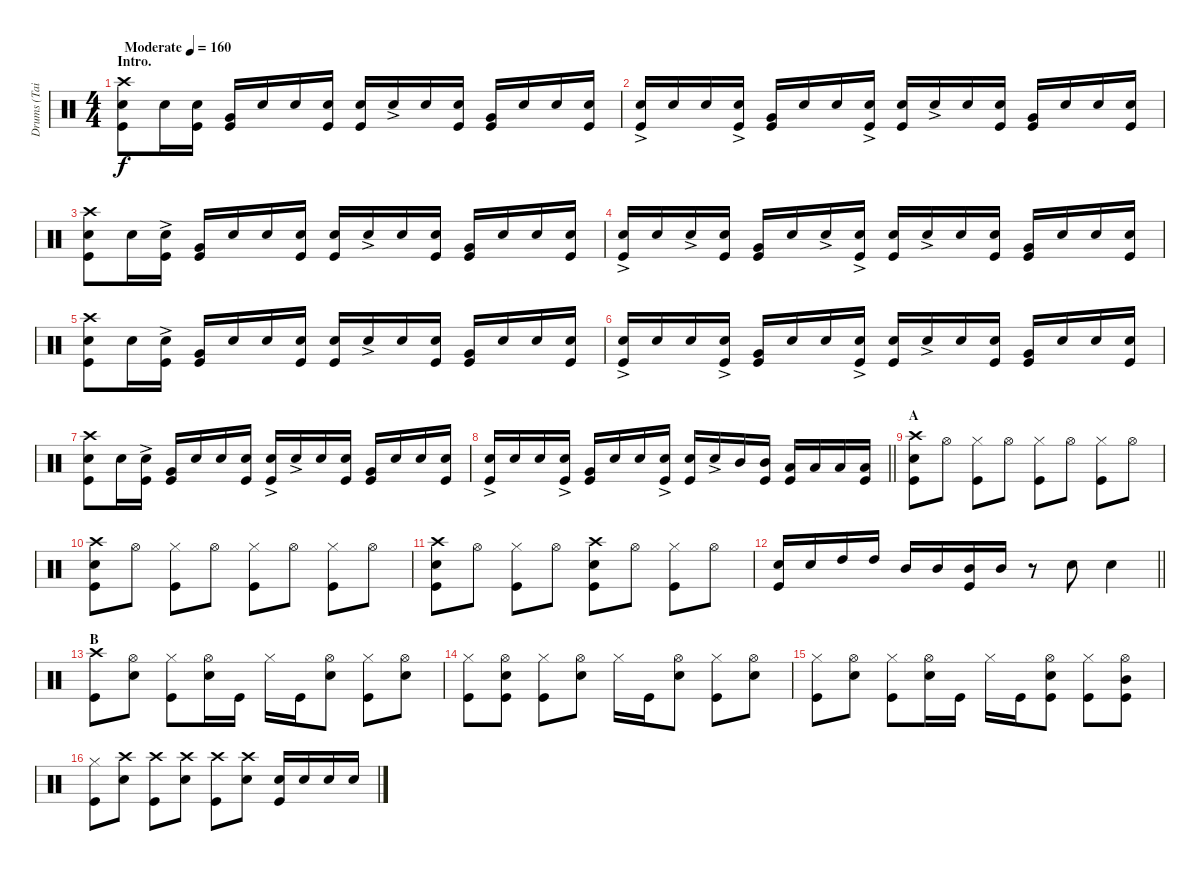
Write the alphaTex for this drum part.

\track ("Drums (Tainaka Ritsu)" "Drums (Tai") {instrument percussion}
\staff {score}
\articulation defaults
\ts (4 4)
\section ("" "Intro.")
\tempo (160 "Moderate")
\clef neutral
\ks c
("Crash high (hit)" "Snare (hit) 2" "Kick (hit)").8{dy f} "Snare (hit) 2".16 ("Snare (hit) 2" "Kick (hit)").16 ("Very Low Tom (hit)" "Kick (hit)").16 "Snare (hit) 2".16 "Snare (hit) 2".16 ("Snare (hit) 2" "Kick (hit)").16 ("Snare (hit) 2" "Kick (hit)").16 "Snare (hit) 2"{ac}.16 "Snare (hit) 2".16 ("Snare (hit) 2" "Kick (hit)").16 ("Very Low Tom (hit)" "Kick (hit)").16 "Snare (hit) 2".16 "Snare (hit) 2".16 ("Snare (hit) 2" "Kick (hit)").16 |
("Snare (hit) 2"{ac} "Kick (hit)").16 "Snare (hit) 2".16 "Snare (hit) 2".16 ("Snare (hit) 2"{ac} "Kick (hit)").16 ("Very Low Tom (hit)" "Kick (hit)").16 "Snare (hit) 2".16 "Snare (hit) 2".16 ("Snare (hit) 2"{ac} "Kick (hit)").16 ("Snare (hit) 2" "Kick (hit)").16 "Snare (hit) 2"{ac}.16 "Snare (hit) 2".16 ("Snare (hit) 2" "Kick (hit)").16 ("Very Low Tom (hit)" "Kick (hit)").16 "Snare (hit) 2".16 "Snare (hit) 2".16 ("Snare (hit) 2" "Kick (hit)").16 |
("Crash high (hit)" "Snare (hit) 2" "Kick (hit)").8 "Snare (hit) 2".16 ("Snare (hit) 2"{ac} "Kick (hit)").16 ("Very Low Tom (hit)" "Kick (hit)").16 "Snare (hit) 2".16 "Snare (hit) 2".16 ("Snare (hit) 2" "Kick (hit)").16 ("Snare (hit) 2" "Kick (hit)").16 "Snare (hit) 2"{ac}.16 "Snare (hit) 2".16 ("Snare (hit) 2" "Kick (hit)").16 ("Very Low Tom (hit)" "Kick (hit)").16 "Snare (hit) 2".16 "Snare (hit) 2".16 ("Snare (hit) 2" "Kick (hit)").16 |
("Snare (hit) 2"{ac} "Kick (hit)").16 "Snare (hit) 2".16 "Snare (hit) 2"{ac}.16 ("Snare (hit) 2" "Kick (hit)").16 ("Very Low Tom (hit)" "Kick (hit)").16 "Snare (hit) 2".16 "Snare (hit) 2"{ac}.16 ("Snare (hit) 2"{ac} "Kick (hit)").16 ("Snare (hit) 2" "Kick (hit)").16 "Snare (hit) 2"{ac}.16 "Snare (hit) 2".16 ("Snare (hit) 2" "Kick (hit)").16 ("Very Low Tom (hit)" "Kick (hit)").16 "Snare (hit) 2".16 "Snare (hit) 2".16 ("Snare (hit) 2" "Kick (hit)").16 |
("Crash high (hit)" "Snare (hit) 2" "Kick (hit)").8 "Snare (hit) 2".16 ("Snare (hit) 2"{ac} "Kick (hit)").16 ("Very Low Tom (hit)" "Kick (hit)").16 "Snare (hit) 2".16 "Snare (hit) 2".16 ("Snare (hit) 2" "Kick (hit)").16 ("Snare (hit) 2" "Kick (hit)").16 "Snare (hit) 2"{ac}.16 "Snare (hit) 2".16 ("Snare (hit) 2" "Kick (hit)").16 ("Very Low Tom (hit)" "Kick (hit)").16 "Snare (hit) 2".16 "Snare (hit) 2".16 ("Snare (hit) 2" "Kick (hit)").16 |
("Snare (hit) 2"{ac} "Kick (hit)").16 "Snare (hit) 2".16 "Snare (hit) 2".16 ("Snare (hit) 2"{ac} "Kick (hit)").16 ("Very Low Tom (hit)" "Kick (hit)").16 "Snare (hit) 2".16 "Snare (hit) 2".16 ("Snare (hit) 2"{ac} "Kick (hit)").16 ("Snare (hit) 2" "Kick (hit)").16 "Snare (hit) 2"{ac}.16 "Snare (hit) 2".16 ("Snare (hit) 2" "Kick (hit)").16 ("Very Low Tom (hit)" "Kick (hit)").16 "Snare (hit) 2".16 "Snare (hit) 2".16 ("Snare (hit) 2" "Kick (hit)").16 |
("Crash high (hit)" "Snare (hit) 2" "Kick (hit)").8 "Snare (hit) 2".16 ("Snare (hit) 2"{ac} "Kick (hit)").16 ("Very Low Tom (hit)" "Kick (hit)").16 "Snare (hit) 2".16 "Snare (hit) 2".16 ("Snare (hit) 2" "Kick (hit)").16 ("Snare (hit) 2"{ac} "Kick (hit)").16 "Snare (hit) 2"{ac}.16 "Snare (hit) 2".16 ("Snare (hit) 2" "Kick (hit)").16 ("Very Low Tom (hit)" "Kick (hit)").16 "Snare (hit) 2".16 "Snare (hit) 2".16 ("Snare (hit) 2" "Kick (hit)").16 |
\barLineRight lightlight
("Snare (hit) 2"{ac} "Kick (hit)").16 "Snare (hit) 2".16 "Snare (hit) 2".16 ("Snare (hit) 2"{ac} "Kick (hit)").16 ("Very Low Tom (hit)" "Kick (hit)").16 "Snare (hit) 2".16 "Snare (hit) 2".16 ("Snare (hit) 2"{ac} "Kick (hit)").16 ("Snare (hit) 2" "Kick (hit)").16 "Snare (hit) 2"{ac}.16 "Mid Tom (hit)".16 ("Mid Tom (hit)" "Kick (hit)").16 ("Low Tom (hit)" "Kick (hit)").16 "Low Tom (hit)".16 "Low Tom (hit)".16 ("Low Tom (hit)" "Kick (hit)").16 |
\section ("" "A")
("Crash high (hit)" "Snare (hit) 2" "Kick (hit)").8 "Hi-Hat (open)".8 ("Hi-Hat (closed)" "Kick (hit)").8 "Hi-Hat (open)".8 ("Hi-Hat (closed)" "Kick (hit)").8 "Hi-Hat (open)".8 ("Hi-Hat (closed)" "Kick (hit)").8 "Hi-Hat (open)".8 |
("Crash high (hit)" "Snare (hit) 2" "Kick (hit)").8 "Hi-Hat (open)".8 ("Hi-Hat (closed)" "Kick (hit)").8 "Hi-Hat (open)".8 ("Hi-Hat (closed)" "Kick (hit)").8 "Hi-Hat (open)".8 ("Hi-Hat (closed)" "Kick (hit)").8 "Hi-Hat (open)".8 |
("Crash high (hit)" "Snare (hit) 2" "Kick (hit)").8 "Hi-Hat (open)".8 ("Hi-Hat (closed)" "Kick (hit)").8 "Hi-Hat (open)".8 ("Crash high (hit)" "Snare (hit) 2" "Kick (hit)").8 "Hi-Hat (open)".8 ("Hi-Hat (closed)" "Kick (hit)").8 "Hi-Hat (open)".8 |
\barLineRight lightlight
("Snare (hit) 2" "Kick (hit)").16 "Snare (hit) 2".16 "High Tom (hit)".16 "High Tom (hit)".16 "Mid Tom (hit)".16 "Mid Tom (hit)".16 ("Mid Tom (hit)" "Kick (hit)").16 "Mid Tom (hit)".16 r.8 "Snare (hit) 2".8 "Snare (hit) 2".4 |
\section ("" "B")
("Crash high (hit)" "Kick (hit)").8 ("Hi-Hat (open)" "Snare (hit) 2").8 ("Hi-Hat (closed)" "Kick (hit)").8 ("Hi-Hat (open)" "Snare (hit) 2").16 "Kick (hit)".16 "Hi-Hat (closed)".16 "Kick (hit)".16 ("Hi-Hat (open)" "Snare (hit) 2").8 ("Hi-Hat (closed)" "Kick (hit)").8 ("Hi-Hat (open)" "Snare (hit) 2").8 |
("Hi-Hat (closed)" "Kick (hit)").8 ("Hi-Hat (open)" "Snare (hit) 2" "Kick (hit)").8 ("Hi-Hat (closed)" "Kick (hit)").8 ("Hi-Hat (open)" "Snare (hit) 2").8 "Hi-Hat (closed)".16 "Kick (hit)".16 ("Hi-Hat (open)" "Snare (hit) 2").8 ("Hi-Hat (closed)" "Kick (hit)").8 ("Hi-Hat (open)" "Snare (hit) 2").8 |
("Hi-Hat (closed)" "Kick (hit)").8 ("Hi-Hat (open)" "Snare (hit) 2").8 ("Hi-Hat (closed)" "Kick (hit)").8 ("Hi-Hat (open)" "Snare (hit) 2").16 "Kick (hit)".16 "Hi-Hat (closed)".16 "Kick (hit)".16 ("Hi-Hat (open)" "Snare (hit) 2" "Kick (hit)").8 ("Hi-Hat (closed)" "Kick (hit)").8 ("Hi-Hat (open)" "Mid Tom (hit)" "Kick (hit)").8 |
("Hi-Hat (closed)" "Kick (hit)").8 ("Crash high (hit)" "Snare (hit) 2").8 ("Crash high (hit)" "Kick (hit)").8 ("Crash high (hit)" "Snare (hit) 2").8 ("Crash high (hit)" "Kick (hit)").8 ("Crash high (hit)" "Snare (hit) 2").8 ("Snare (hit) 2" "Kick (hit)").16 "Snare (hit) 2".16 "Snare (hit) 2".16 "Snare (hit) 2".16
